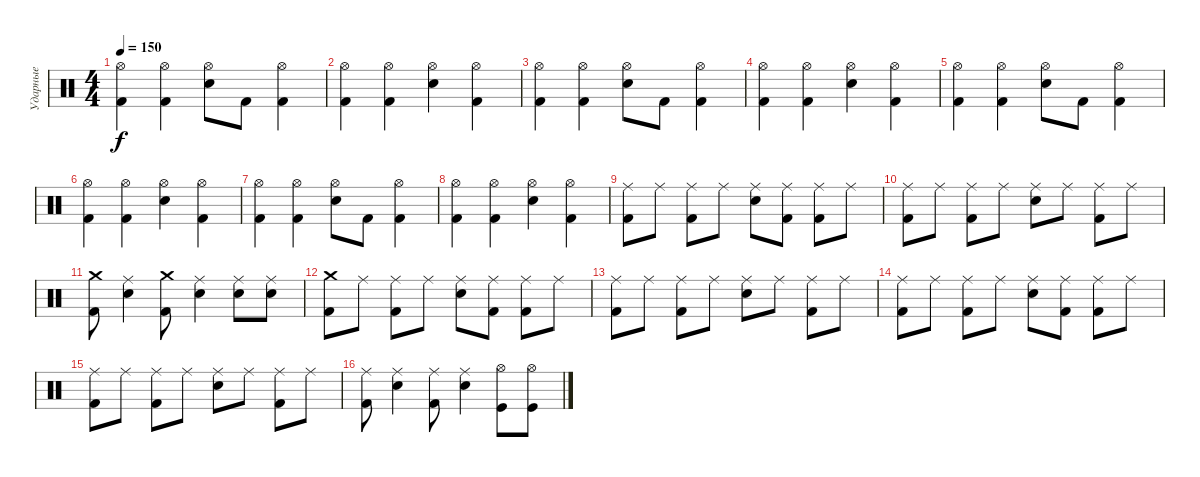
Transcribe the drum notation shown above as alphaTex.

\track ("Ударные" "Ударные") {instrument percussion}
\staff {score}
\articulation defaults
\ts (4 4)
\tempo 150
\clef neutral
\ks c
("Hi-Hat (open)" "Kick (hit) 2").4{dy f} ("Hi-Hat (open)" "Kick (hit) 2").4 ("Hi-Hat (open)" "Electric Snare (hit)").8 "Kick (hit) 2".8 ("Hi-Hat (open)" "Kick (hit) 2").4 |
("Hi-Hat (open)" "Kick (hit) 2").4 ("Hi-Hat (open)" "Kick (hit) 2").4 ("Hi-Hat (open)" "Electric Snare (hit)").4 ("Hi-Hat (open)" "Kick (hit) 2").4 |
("Hi-Hat (open)" "Kick (hit) 2").4 ("Hi-Hat (open)" "Kick (hit) 2").4 ("Hi-Hat (open)" "Electric Snare (hit)").8 "Kick (hit) 2".8 ("Hi-Hat (open)" "Kick (hit) 2").4 |
("Hi-Hat (open)" "Kick (hit) 2").4 ("Hi-Hat (open)" "Kick (hit) 2").4 ("Hi-Hat (open)" "Electric Snare (hit)").4 ("Hi-Hat (open)" "Kick (hit) 2").4 |
("Hi-Hat (open)" "Kick (hit) 2").4 ("Hi-Hat (open)" "Kick (hit) 2").4 ("Hi-Hat (open)" "Electric Snare (hit)").8 "Kick (hit) 2".8 ("Hi-Hat (open)" "Kick (hit) 2").4 |
("Hi-Hat (open)" "Kick (hit) 2").4 ("Hi-Hat (open)" "Kick (hit) 2").4 ("Hi-Hat (open)" "Electric Snare (hit)").4 ("Hi-Hat (open)" "Kick (hit) 2").4 |
("Hi-Hat (open)" "Kick (hit) 2").4 ("Hi-Hat (open)" "Kick (hit) 2").4 ("Hi-Hat (open)" "Electric Snare (hit)").8 "Kick (hit) 2".8 ("Hi-Hat (open)" "Kick (hit) 2").4 |
("Hi-Hat (open)" "Kick (hit) 2").4 ("Hi-Hat (open)" "Kick (hit) 2").4 ("Hi-Hat (open)" "Electric Snare (hit)").4 ("Hi-Hat (open)" "Kick (hit) 2").4 |
("Ride (middle)" "Kick (hit) 2").8 "Ride (middle)".8 ("Ride (middle)" "Kick (hit) 2").8 "Ride (middle)".8 ("Ride (middle)" "Electric Snare (hit)").8 ("Ride (middle)" "Kick (hit) 2").8 ("Ride (middle)" "Kick (hit) 2").8 "Ride (middle)".8 |
("Ride (middle)" "Kick (hit) 2").8 "Ride (middle)".8 ("Ride (middle)" "Kick (hit) 2").8 "Ride (middle)".8 ("Ride (middle)" "Electric Snare (hit)").8 "Ride (middle)".8 ("Ride (middle)" "Kick (hit) 2").8 "Ride (middle)".8 |
("Crash medium (hit)" "Kick (hit) 2").8 ("Ride (middle)" "Electric Snare (hit)").4 ("Crash medium (hit)" "Kick (hit) 2").8 ("Ride (middle)" "Electric Snare (hit)").4 ("Ride (middle)" "Electric Snare (hit)").8 ("Ride (middle)" "Electric Snare (hit)").8 |
("Crash medium (hit)" "Kick (hit) 2").8 "Ride (middle)".8 ("Ride (middle)" "Kick (hit) 2").8 "Ride (middle)".8 ("Ride (middle)" "Electric Snare (hit)").8 ("Ride (middle)" "Kick (hit) 2").8 ("Ride (middle)" "Kick (hit) 2").8 "Ride (middle)".8 |
("Ride (middle)" "Kick (hit) 2").8 "Ride (middle)".8 ("Ride (middle)" "Kick (hit) 2").8 "Ride (middle)".8 ("Ride (middle)" "Electric Snare (hit)").8 "Ride (middle)".8 ("Ride (middle)" "Kick (hit) 2").8 "Ride (middle)".8 |
("Ride (middle)" "Kick (hit) 2").8 "Ride (middle)".8 ("Ride (middle)" "Kick (hit) 2").8 "Ride (middle)".8 ("Ride (middle)" "Electric Snare (hit)").8 ("Ride (middle)" "Kick (hit) 2").8 ("Ride (middle)" "Kick (hit) 2").8 "Ride (middle)".8 |
("Ride (middle)" "Kick (hit) 2").8 "Ride (middle)".8 ("Ride (middle)" "Kick (hit) 2").8 "Ride (middle)".8 ("Ride (middle)" "Electric Snare (hit)").8 "Ride (middle)".8 ("Ride (middle)" "Kick (hit) 2").8 "Ride (middle)".8 |
("Ride (middle)" "Kick (hit) 2").8 ("Ride (middle)" "Electric Snare (hit)").4 ("Ride (middle)" "Kick (hit) 2").8 ("Ride (middle)" "Electric Snare (hit)").4 ("Hi-Hat (open)" "Kick (hit)").8 ("Hi-Hat (open)" "Kick (hit)").8
